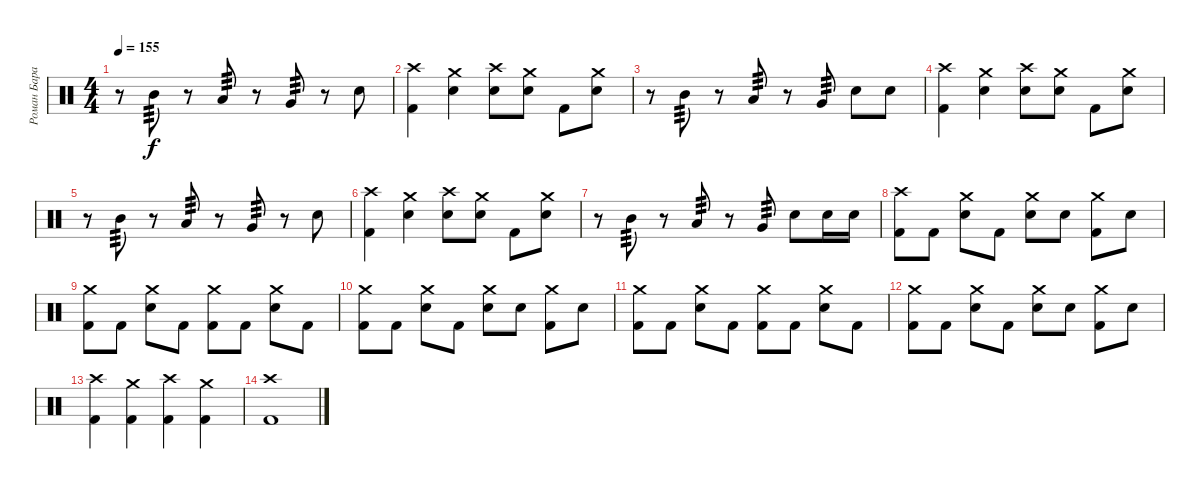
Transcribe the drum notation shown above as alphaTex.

\track ("Роман Баранюк (Meinl, Vic Firth, Peace)" "Роман Бара") {instrument percussion}
\staff {score}
\articulation defaults
\ts (4 4)
\tempo 155
\clef neutral
\ks c
r.8{dy f} "Mid Tom (hit)".8{tp 3} r.8 "Low Tom (hit)".8{tp 3} r.8 "Very Low Tom (hit)".8{tp 3} r.8 "Snare (hit) 2".8 |
("Crash high (hit)" "Kick (hit) 2").4 ("Crash medium (hit)" "Snare (hit) 2").4 ("Crash high (hit)" "Snare (hit) 2").8 ("Crash medium (hit)" "Snare (hit) 2").8 "Kick (hit) 2".8 ("Crash medium (hit)" "Snare (hit) 2").8 |
r.8 "Mid Tom (hit)".8{tp 3} r.8 "Low Tom (hit)".8{tp 3} r.8 "Very Low Tom (hit)".8{tp 3} "Snare (hit) 2".8 "Snare (hit) 2".8 |
("Crash high (hit)" "Kick (hit) 2").4 ("Crash medium (hit)" "Snare (hit) 2").4 ("Crash high (hit)" "Snare (hit) 2").8 ("Crash medium (hit)" "Snare (hit) 2").8 "Kick (hit) 2".8 ("Crash medium (hit)" "Snare (hit) 2").8 |
r.8 "Mid Tom (hit)".8{tp 3} r.8 "Low Tom (hit)".8{tp 3} r.8 "Very Low Tom (hit)".8{tp 3} r.8 "Snare (hit) 2".8 |
("Crash high (hit)" "Kick (hit) 2").4 ("Crash medium (hit)" "Snare (hit) 2").4 ("Crash high (hit)" "Snare (hit) 2").8 ("Crash medium (hit)" "Snare (hit) 2").8 "Kick (hit) 2".8 ("Crash medium (hit)" "Snare (hit) 2").8 |
r.8 "Mid Tom (hit)".8{tp 3} r.8 "Low Tom (hit)".8{tp 3} r.8 "Very Low Tom (hit)".8{tp 3} "Snare (hit) 2".8 "Snare (hit) 2".16 "Snare (hit) 2".16 |
("Crash high (hit)" "Kick (hit) 2").8 "Kick (hit) 2".8 ("Crash medium (hit)" "Snare (hit) 2").8 "Kick (hit) 2".8 ("Crash medium (hit)" "Snare (hit) 2").8 "Snare (hit) 2".8 ("Crash medium (hit)" "Kick (hit) 2").8 "Snare (hit) 2".8 |
("Crash medium (hit)" "Kick (hit) 2").8 "Kick (hit) 2".8 ("Crash medium (hit)" "Snare (hit) 2").8 "Kick (hit) 2".8 ("Crash medium (hit)" "Kick (hit) 2").8 "Kick (hit) 2".8 ("Crash medium (hit)" "Snare (hit) 2").8 "Kick (hit) 2".8 |
("Crash medium (hit)" "Kick (hit) 2").8 "Kick (hit) 2".8 ("Crash medium (hit)" "Snare (hit) 2").8 "Kick (hit) 2".8 ("Crash medium (hit)" "Snare (hit) 2").8 "Snare (hit) 2".8 ("Crash medium (hit)" "Kick (hit) 2").8 "Snare (hit) 2".8 |
("Crash medium (hit)" "Kick (hit) 2").8 "Kick (hit) 2".8 ("Crash medium (hit)" "Snare (hit) 2").8 "Kick (hit) 2".8 ("Crash medium (hit)" "Kick (hit) 2").8 "Kick (hit) 2".8 ("Crash medium (hit)" "Snare (hit) 2").8 "Kick (hit) 2".8 |
("Crash medium (hit)" "Kick (hit) 2").8 "Kick (hit) 2".8 ("Crash medium (hit)" "Snare (hit) 2").8 "Kick (hit) 2".8 ("Crash medium (hit)" "Snare (hit) 2").8 "Snare (hit) 2".8 ("Crash medium (hit)" "Kick (hit) 2").8 "Snare (hit) 2".8 |
("Crash high (hit)" "Kick (hit) 2").4 ("Crash medium (hit)" "Kick (hit) 2").4 ("Crash high (hit)" "Kick (hit) 2").4 ("Crash medium (hit)" "Kick (hit) 2").4 |
("Crash high (hit)" "Kick (hit) 2").1
